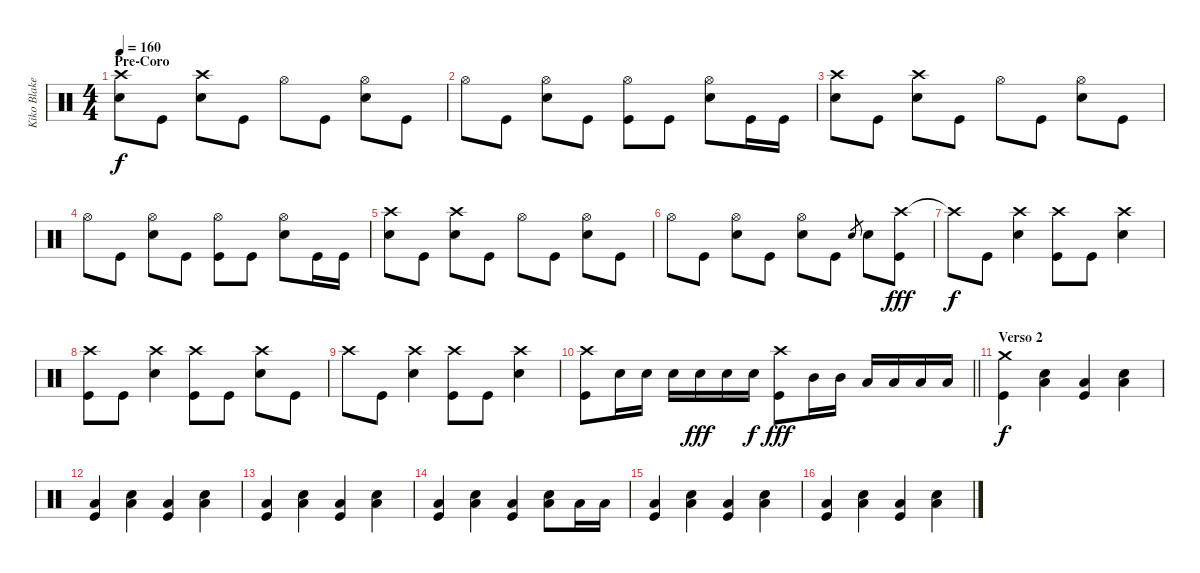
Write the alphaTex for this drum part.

\track ("Kiko Blake" "Kiko Blake") {instrument percussion}
\staff {score}
\articulation defaults
\ts (4 4)
\section ("" "Pre-Coro")
\tempo 160
\clef neutral
\ks c
("Crash high (hit)" "Snare (hit) 2").8{dy f} "Kick (hit)".8 ("Crash high (hit)" "Snare (hit) 2").8 "Kick (hit)".8 "Hi-Hat (open)".8 "Kick (hit)".8 ("Hi-Hat (open)" "Snare (hit) 2").8 "Kick (hit)".8 |
"Hi-Hat (open)".8 "Kick (hit)".8 ("Hi-Hat (open)" "Snare (hit) 2").8 "Kick (hit)".8 ("Hi-Hat (open)" "Kick (hit)").8 "Kick (hit)".8 ("Hi-Hat (open)" "Snare (hit) 2").8 "Kick (hit)".16 "Kick (hit)".16 |
("Crash high (hit)" "Snare (hit) 2").8 "Kick (hit)".8 ("Crash high (hit)" "Snare (hit) 2").8 "Kick (hit)".8 "Hi-Hat (open)".8 "Kick (hit)".8 ("Hi-Hat (open)" "Snare (hit) 2").8 "Kick (hit)".8 |
"Hi-Hat (open)".8 "Kick (hit)".8 ("Hi-Hat (open)" "Snare (hit) 2").8 "Kick (hit)".8 ("Hi-Hat (open)" "Kick (hit)").8 "Kick (hit)".8 ("Hi-Hat (open)" "Snare (hit) 2").8 "Kick (hit)".16 "Kick (hit)".16 |
("Crash high (hit)" "Snare (hit) 2").8 "Kick (hit)".8 ("Crash high (hit)" "Snare (hit) 2").8 "Kick (hit)".8 "Hi-Hat (open)".8 "Kick (hit)".8 ("Hi-Hat (open)" "Snare (hit) 2").8 "Kick (hit)".8 |
"Hi-Hat (open)".8 "Kick (hit)".8 ("Hi-Hat (open)" "Snare (hit) 2").8 "Kick (hit)".8 ("Hi-Hat (open)" "Snare (hit) 2").8 "Kick (hit)".8 "Snare (hit) 2".8{gr} "Snare (hit) 2".8 ("Crash high (hit)" "Kick (hit)").8{dy fff} |
"Crash high (hit)"{t}.8{dy f} "Kick (hit)".8 ("Crash high (hit)" "Snare (hit) 2").4 ("Crash high (hit)" "Kick (hit)").8 "Kick (hit)".8 ("Crash high (hit)" "Snare (hit) 2").4 |
("Crash high (hit)" "Kick (hit)").8 "Kick (hit)".8 ("Crash high (hit)" "Snare (hit) 2").4 ("Crash high (hit)" "Kick (hit)").8 "Kick (hit)".8 ("Crash high (hit)" "Snare (hit) 2").8 "Kick (hit)".8 |
"Crash high (hit)".8 "Kick (hit)".8 ("Crash high (hit)" "Snare (hit) 2").4 ("Crash high (hit)" "Kick (hit)").8 "Kick (hit)".8 ("Crash high (hit)" "Snare (hit) 2").4 |
\barLineRight lightlight
("Crash high (hit)" "Kick (hit)").8 "Snare (hit) 2".16 "Snare (hit) 2".16 "Snare (hit) 2".16 "Snare (hit) 2".16{dy fff} "Snare (hit) 2".16 "Snare (hit) 2".16{dy f} ("Crash high (hit)" "Kick (hit)").8{dy fff} "Mid Tom (hit)".16 "Mid Tom (hit)".16 "Low Tom (hit)".16 "Low Tom (hit)".16 "Low Floor Tom (hit)".16 "Low Floor Tom (hit)".16 |
\section ("" "Verso 2")
("Crash medium (hit)" "Kick (hit)").4{dy f} ("Low Floor Tom (hit)" "Snare (hit) 2").4 ("Low Floor Tom (hit)" "Kick (hit)").4 ("Low Floor Tom (hit)" "Snare (hit) 2").4 |
("Low Floor Tom (hit)" "Kick (hit)").4 ("Low Floor Tom (hit)" "Snare (hit) 2").4 ("Low Floor Tom (hit)" "Kick (hit)").4 ("Low Floor Tom (hit)" "Snare (hit) 2").4 |
("Low Floor Tom (hit)" "Kick (hit)").4 ("Low Floor Tom (hit)" "Snare (hit) 2").4 ("Low Floor Tom (hit)" "Kick (hit)").4 ("Low Floor Tom (hit)" "Snare (hit) 2").4 |
("Low Floor Tom (hit)" "Kick (hit)").4 ("Low Floor Tom (hit)" "Snare (hit) 2").4 ("Low Floor Tom (hit)" "Kick (hit)").4 ("Low Floor Tom (hit)" "Snare (hit) 2").8 "Low Floor Tom (hit)".16 "Low Floor Tom (hit)".16 |
("Low Floor Tom (hit)" "Kick (hit)").4 ("Low Floor Tom (hit)" "Snare (hit) 2").4 ("Low Floor Tom (hit)" "Kick (hit)").4 ("Low Floor Tom (hit)" "Snare (hit) 2").4 |
("Low Floor Tom (hit)" "Kick (hit)").4 ("Low Floor Tom (hit)" "Snare (hit) 2").4 ("Low Floor Tom (hit)" "Kick (hit)").4 ("Low Floor Tom (hit)" "Snare (hit) 2").4
